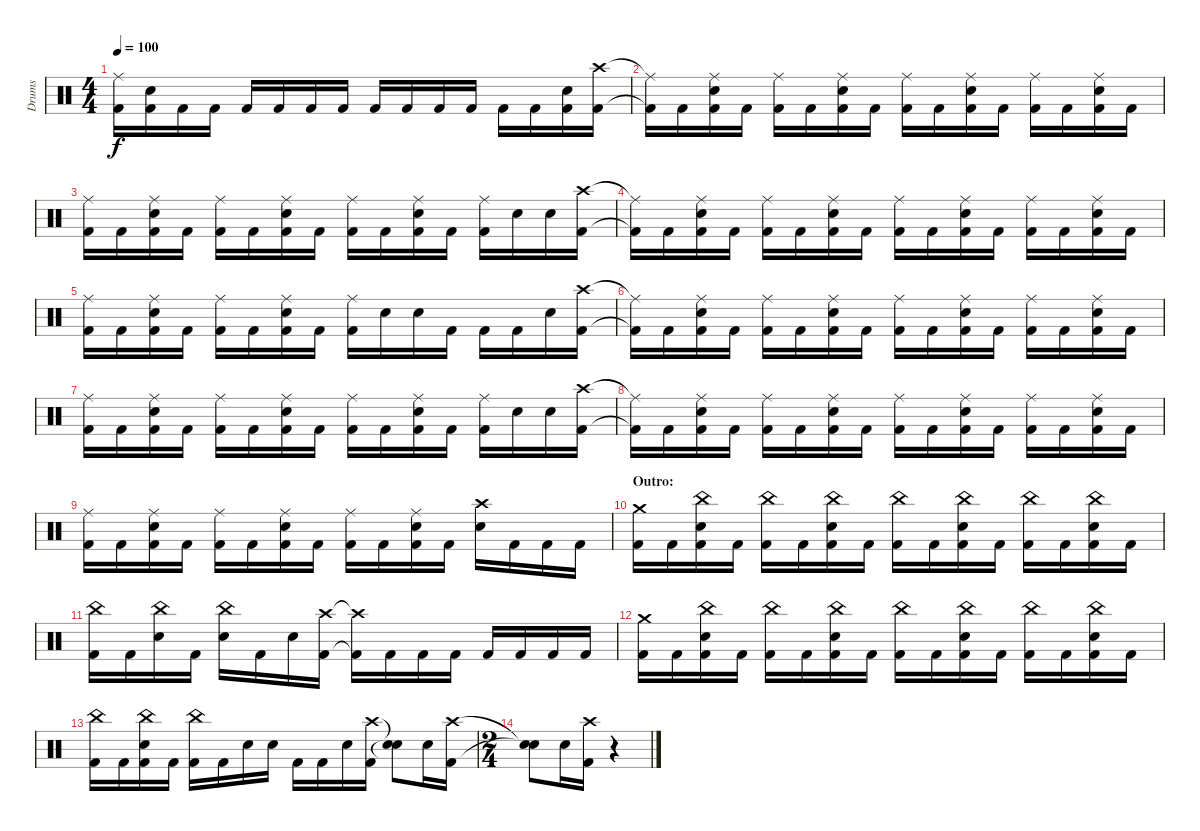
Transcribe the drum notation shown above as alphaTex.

\track ("Drums" "Drums") {instrument percussion}
\staff {score}
\articulation defaults
\ts (4 4)
\tempo 100
\clef neutral
\ks c
("Ride (middle)" "Kick (hit) 2").16{dy f} ("Electric Snare (hit)" "Kick (hit) 2").16 "Kick (hit) 2".16 "Kick (hit) 2".16 "Kick (hit) 2".16 "Kick (hit) 2".16 "Kick (hit) 2".16 "Kick (hit) 2".16 "Kick (hit) 2".16 "Kick (hit) 2".16 "Kick (hit) 2".16 "Kick (hit) 2".16 "Kick (hit) 2".16 "Kick (hit) 2".16 ("Electric Snare (hit)" "Kick (hit) 2").16 ("Crash high (hit)" "Kick (hit) 2").16 |
("Ride (middle)"{t} "Kick (hit) 2"{t}).16 "Kick (hit) 2".16 ("Ride (middle)" "Electric Snare (hit)" "Kick (hit) 2").16 "Kick (hit) 2".16 ("Ride (middle)" "Kick (hit) 2").16 "Kick (hit) 2".16 ("Ride (middle)" "Electric Snare (hit)" "Kick (hit) 2").16 "Kick (hit) 2".16 ("Ride (middle)" "Kick (hit) 2").16 "Kick (hit) 2".16 ("Ride (middle)" "Electric Snare (hit)" "Kick (hit) 2").16 "Kick (hit) 2".16 ("Ride (middle)" "Kick (hit) 2").16 "Kick (hit) 2".16 ("Ride (middle)" "Electric Snare (hit)" "Kick (hit) 2").16 "Kick (hit) 2".16 |
("Ride (middle)" "Kick (hit) 2").16 "Kick (hit) 2".16 ("Ride (middle)" "Electric Snare (hit)" "Kick (hit) 2").16 "Kick (hit) 2".16 ("Ride (middle)" "Kick (hit) 2").16 "Kick (hit) 2".16 ("Ride (middle)" "Electric Snare (hit)" "Kick (hit) 2").16 "Kick (hit) 2".16 ("Ride (middle)" "Kick (hit) 2").16 "Kick (hit) 2".16 ("Ride (middle)" "Electric Snare (hit)" "Kick (hit) 2").16 "Kick (hit) 2".16 ("Ride (middle)" "Kick (hit) 2").16 "Electric Snare (hit)".16 "Electric Snare (hit)".16 ("Crash high (hit)" "Kick (hit) 2").16 |
("Ride (middle)"{t} "Kick (hit) 2"{t}).16 "Kick (hit) 2".16 ("Ride (middle)" "Electric Snare (hit)" "Kick (hit) 2").16 "Kick (hit) 2".16 ("Ride (middle)" "Kick (hit) 2").16 "Kick (hit) 2".16 ("Ride (middle)" "Electric Snare (hit)" "Kick (hit) 2").16 "Kick (hit) 2".16 ("Ride (middle)" "Kick (hit) 2").16 "Kick (hit) 2".16 ("Ride (middle)" "Electric Snare (hit)" "Kick (hit) 2").16 "Kick (hit) 2".16 ("Ride (middle)" "Kick (hit) 2").16 "Kick (hit) 2".16 ("Ride (middle)" "Electric Snare (hit)" "Kick (hit) 2").16 "Kick (hit) 2".16 |
("Ride (middle)" "Kick (hit) 2").16 "Kick (hit) 2".16 ("Ride (middle)" "Electric Snare (hit)" "Kick (hit) 2").16 "Kick (hit) 2".16 ("Ride (middle)" "Kick (hit) 2").16 "Kick (hit) 2".16 ("Ride (middle)" "Electric Snare (hit)" "Kick (hit) 2").16 "Kick (hit) 2".16 ("Ride (middle)" "Kick (hit) 2").16 "Electric Snare (hit)".16 "Electric Snare (hit)".16 "Kick (hit) 2".16 "Kick (hit) 2".16 "Kick (hit) 2".16 "Electric Snare (hit)".16 ("Crash high (hit)" "Kick (hit) 2").16 |
("Ride (middle)"{t} "Kick (hit) 2"{t}).16 "Kick (hit) 2".16 ("Ride (middle)" "Electric Snare (hit)" "Kick (hit) 2").16 "Kick (hit) 2".16 ("Ride (middle)" "Kick (hit) 2").16 "Kick (hit) 2".16 ("Ride (middle)" "Electric Snare (hit)" "Kick (hit) 2").16 "Kick (hit) 2".16 ("Ride (middle)" "Kick (hit) 2").16 "Kick (hit) 2".16 ("Ride (middle)" "Electric Snare (hit)" "Kick (hit) 2").16 "Kick (hit) 2".16 ("Ride (middle)" "Kick (hit) 2").16 "Kick (hit) 2".16 ("Ride (middle)" "Electric Snare (hit)" "Kick (hit) 2").16 "Kick (hit) 2".16 |
("Ride (middle)" "Kick (hit) 2").16 "Kick (hit) 2".16 ("Ride (middle)" "Electric Snare (hit)" "Kick (hit) 2").16 "Kick (hit) 2".16 ("Ride (middle)" "Kick (hit) 2").16 "Kick (hit) 2".16 ("Ride (middle)" "Electric Snare (hit)" "Kick (hit) 2").16 "Kick (hit) 2".16 ("Ride (middle)" "Kick (hit) 2").16 "Kick (hit) 2".16 ("Ride (middle)" "Electric Snare (hit)" "Kick (hit) 2").16 "Kick (hit) 2".16 ("Ride (middle)" "Kick (hit) 2").16 "Electric Snare (hit)".16 "Electric Snare (hit)".16 ("Crash high (hit)" "Kick (hit) 2").16 |
("Ride (middle)"{t} "Kick (hit) 2"{t}).16 "Kick (hit) 2".16 ("Ride (middle)" "Electric Snare (hit)" "Kick (hit) 2").16 "Kick (hit) 2".16 ("Ride (middle)" "Kick (hit) 2").16 "Kick (hit) 2".16 ("Ride (middle)" "Electric Snare (hit)" "Kick (hit) 2").16 "Kick (hit) 2".16 ("Ride (middle)" "Kick (hit) 2").16 "Kick (hit) 2".16 ("Ride (middle)" "Electric Snare (hit)" "Kick (hit) 2").16 "Kick (hit) 2".16 ("Ride (middle)" "Kick (hit) 2").16 "Kick (hit) 2".16 ("Ride (middle)" "Electric Snare (hit)" "Kick (hit) 2").16 "Kick (hit) 2".16 |
("Ride (middle)" "Kick (hit) 2").16 "Kick (hit) 2".16 ("Ride (middle)" "Electric Snare (hit)" "Kick (hit) 2").16 "Kick (hit) 2".16 ("Ride (middle)" "Kick (hit) 2").16 "Kick (hit) 2".16 ("Ride (middle)" "Electric Snare (hit)" "Kick (hit) 2").16 "Kick (hit) 2".16 ("Ride (middle)" "Kick (hit) 2").16 "Kick (hit) 2".16 ("Ride (middle)" "Electric Snare (hit)" "Kick (hit) 2").16 "Kick (hit) 2".16 ("Crash high (hit)" "Electric Snare (hit)").16 "Kick (hit) 2".16 "Kick (hit) 2".16 "Kick (hit) 2".16 |
\section ("" "Outro:")
("Crash medium (hit)" "Kick (hit) 2").16 "Kick (hit) 2".16 ("China (hit)" "Electric Snare (hit)" "Kick (hit) 2").16 "Kick (hit) 2".16 ("China (hit)" "Kick (hit) 2").16 "Kick (hit) 2".16 ("China (hit)" "Electric Snare (hit)" "Kick (hit) 2").16 "Kick (hit) 2".16 ("China (hit)" "Kick (hit) 2").16 "Kick (hit) 2".16 ("China (hit)" "Electric Snare (hit)" "Kick (hit) 2").16 "Kick (hit) 2".16 ("China (hit)" "Kick (hit) 2").16 "Kick (hit) 2".16 ("China (hit)" "Electric Snare (hit)" "Kick (hit) 2").16 "Kick (hit) 2".16 |
("China (hit)" "Kick (hit) 2").16 "Kick (hit) 2".16 ("China (hit)" "Electric Snare (hit)").16 "Kick (hit) 2".16 ("China (hit)" "Electric Snare (hit)").16 "Kick (hit) 2".16 "Electric Snare (hit)".16 ("Crash high (hit)" "Kick (hit) 2").16 ("Crash high (hit)"{t} "Kick (hit) 2"{t}).16 "Kick (hit) 2".16 "Kick (hit) 2".16 "Kick (hit) 2".16 "Kick (hit) 2".16 "Kick (hit) 2".16 "Kick (hit) 2".16 "Kick (hit) 2".16 |
("Crash medium (hit)" "Kick (hit) 2").16 "Kick (hit) 2".16 ("China (hit)" "Electric Snare (hit)" "Kick (hit) 2").16 "Kick (hit) 2".16 ("China (hit)" "Kick (hit) 2").16 "Kick (hit) 2".16 ("China (hit)" "Electric Snare (hit)" "Kick (hit) 2").16 "Kick (hit) 2".16 ("China (hit)" "Kick (hit) 2").16 "Kick (hit) 2".16 ("China (hit)" "Electric Snare (hit)" "Kick (hit) 2").16 "Kick (hit) 2".16 ("China (hit)" "Kick (hit) 2").16 "Kick (hit) 2".16 ("China (hit)" "Electric Snare (hit)" "Kick (hit) 2").16 "Kick (hit) 2".16 |
("China (hit)" "Kick (hit) 2").16 "Kick (hit) 2".16 ("China (hit)" "Electric Snare (hit)" "Kick (hit) 2").16 "Kick (hit) 2".16 ("China (hit)" "Kick (hit) 2").16 "Kick (hit) 2".16 "Electric Snare (hit)".16 "Electric Snare (hit)".16 "Kick (hit) 2".16 "Kick (hit) 2".16 "Electric Snare (hit)".16 ("Crash high (hit)" "Kick (hit) 2").16 ("Snare (hit)"{t} "Snare (hit)"{t}).8 "Electric Snare (hit)".16 ("Crash high (hit)" "Kick (hit) 2").16 |
\ts (2 4)
("Snare (hit)"{t} "Snare (hit)"{t}).8 "Electric Snare (hit)".16 ("Crash high (hit)" "Kick (hit) 2").16 r.4
